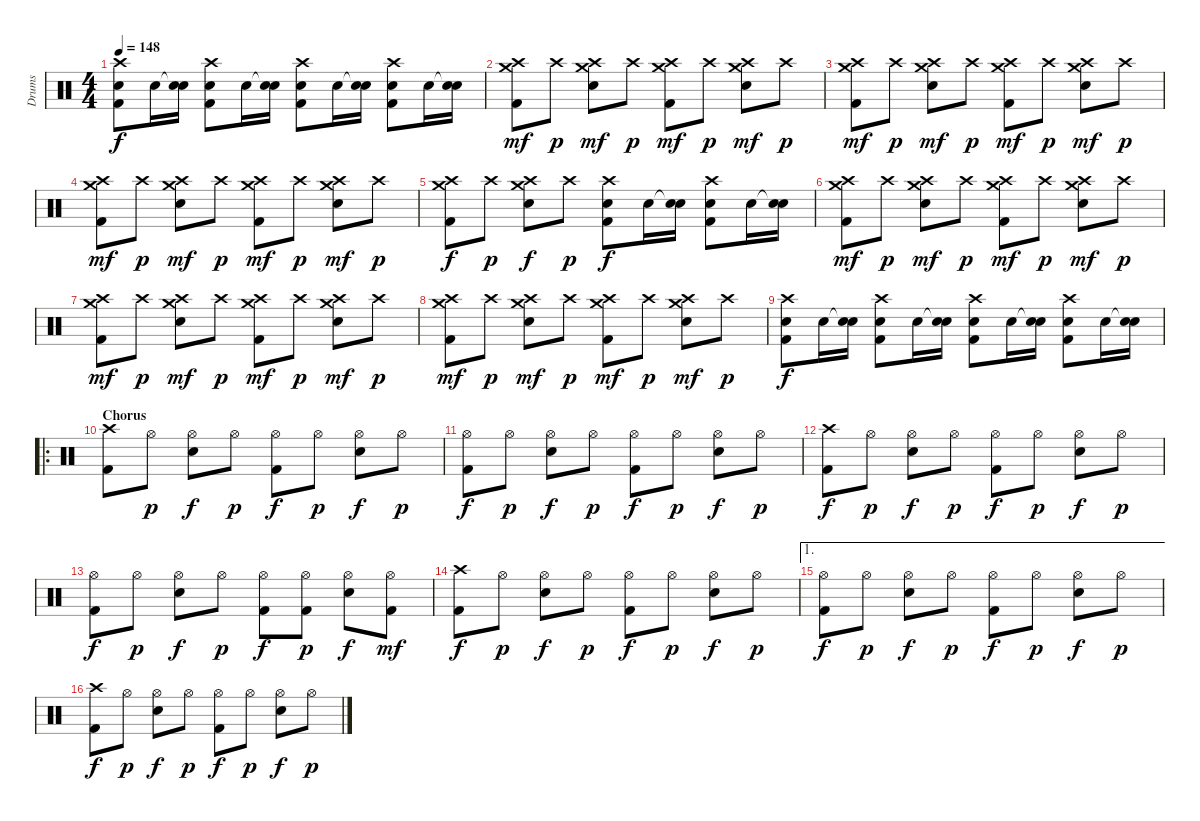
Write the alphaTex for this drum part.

\track ("Drums" "Drums") {instrument percussion}
\staff {score}
\articulation defaults
\ts (4 4)
\tempo 148
\clef neutral
\ks c
("Crash high (hit)" "Snare (hit) 2" "Kick (hit) 2").8{dy f} "Snare (hit) 2".16 ("Snare (hit)"{t} "Snare (hit) 2").16 ("Crash high (hit)" "Snare (hit) 2" "Kick (hit) 2").8 "Snare (hit) 2".16 ("Snare (hit)"{t} "Snare (hit) 2").16 ("Crash high (hit)" "Snare (hit) 2" "Kick (hit) 2").8 "Snare (hit) 2".16 ("Snare (hit)"{t} "Snare (hit) 2").16 ("Crash high (hit)" "Snare (hit) 2" "Kick (hit) 2").8 "Snare (hit) 2".16 ("Snare (hit)"{t} "Snare (hit) 2").16 |
("Crash high (hit)" "Crash medium (hit)" "Kick (hit) 2").8{dy mf} "Crash high (hit)".8{dy p} ("Crash high (hit)" "Crash medium (hit)" "Snare (hit) 2").8{dy mf} "Crash high (hit)".8{dy p} ("Crash high (hit)" "Crash medium (hit)" "Kick (hit) 2").8{dy mf} "Crash high (hit)".8{dy p} ("Crash high (hit)" "Crash medium (hit)" "Snare (hit) 2").8{dy mf} "Crash high (hit)".8{dy p} |
("Crash high (hit)" "Crash medium (hit)" "Kick (hit) 2").8{dy mf} "Crash high (hit)".8{dy p} ("Crash high (hit)" "Crash medium (hit)" "Snare (hit) 2").8{dy mf} "Crash high (hit)".8{dy p} ("Crash high (hit)" "Crash medium (hit)" "Kick (hit) 2").8{dy mf} "Crash high (hit)".8{dy p} ("Crash high (hit)" "Crash medium (hit)" "Snare (hit) 2").8{dy mf} "Crash high (hit)".8{dy p} |
("Crash high (hit)" "Crash medium (hit)" "Kick (hit) 2").8{dy mf} "Crash high (hit)".8{dy p} ("Crash high (hit)" "Crash medium (hit)" "Snare (hit) 2").8{dy mf} "Crash high (hit)".8{dy p} ("Crash high (hit)" "Crash medium (hit)" "Kick (hit) 2").8{dy mf} "Crash high (hit)".8{dy p} ("Crash high (hit)" "Crash medium (hit)" "Snare (hit) 2").8{dy mf} "Crash high (hit)".8{dy p} |
("Crash high (hit)" "Crash medium (hit)" "Kick (hit) 2").8{dy f} "Crash high (hit)".8{dy p} ("Crash high (hit)" "Crash medium (hit)" "Snare (hit) 2").8{dy f} "Crash high (hit)".8{dy p} ("Crash high (hit)" "Snare (hit) 2" "Kick (hit) 2").8{dy f} "Snare (hit) 2".16 ("Snare (hit)"{t} "Snare (hit) 2").16 ("Crash high (hit)" "Snare (hit) 2" "Kick (hit) 2").8 "Snare (hit) 2".16 ("Snare (hit)"{t} "Snare (hit) 2").16 |
("Crash high (hit)" "Crash medium (hit)" "Kick (hit) 2").8{dy mf} "Crash high (hit)".8{dy p} ("Crash high (hit)" "Crash medium (hit)" "Snare (hit) 2").8{dy mf} "Crash high (hit)".8{dy p} ("Crash high (hit)" "Crash medium (hit)" "Kick (hit) 2").8{dy mf} "Crash high (hit)".8{dy p} ("Crash high (hit)" "Crash medium (hit)" "Snare (hit) 2").8{dy mf} "Crash high (hit)".8{dy p} |
("Crash high (hit)" "Crash medium (hit)" "Kick (hit) 2").8{dy mf} "Crash high (hit)".8{dy p} ("Crash high (hit)" "Crash medium (hit)" "Snare (hit) 2").8{dy mf} "Crash high (hit)".8{dy p} ("Crash high (hit)" "Crash medium (hit)" "Kick (hit) 2").8{dy mf} "Crash high (hit)".8{dy p} ("Crash high (hit)" "Crash medium (hit)" "Snare (hit) 2").8{dy mf} "Crash high (hit)".8{dy p} |
("Crash high (hit)" "Crash medium (hit)" "Kick (hit) 2").8{dy mf} "Crash high (hit)".8{dy p} ("Crash high (hit)" "Crash medium (hit)" "Snare (hit) 2").8{dy mf} "Crash high (hit)".8{dy p} ("Crash high (hit)" "Crash medium (hit)" "Kick (hit) 2").8{dy mf} "Crash high (hit)".8{dy p} ("Crash high (hit)" "Crash medium (hit)" "Snare (hit) 2").8{dy mf} "Crash high (hit)".8{dy p} |
("Crash high (hit)" "Snare (hit) 2" "Kick (hit) 2").8{dy f} "Snare (hit) 2".16 ("Snare (hit)"{t} "Snare (hit) 2").16 ("Crash high (hit)" "Snare (hit) 2" "Kick (hit) 2").8 "Snare (hit) 2".16 ("Snare (hit)"{t} "Snare (hit) 2").16 ("Crash high (hit)" "Snare (hit) 2" "Kick (hit) 2").8 "Snare (hit) 2".16 ("Snare (hit)"{t} "Snare (hit) 2").16 ("Crash high (hit)" "Snare (hit) 2" "Kick (hit) 2").8 "Snare (hit) 2".16 ("Snare (hit)"{t} "Snare (hit) 2").16 |
\ro
\section ("" "Chorus")
("Crash high (hit)" "Kick (hit) 2").8 "Hi-Hat (open)".8{dy p} ("Hi-Hat (open)" "Snare (hit) 2").8{dy f} "Hi-Hat (open)".8{dy p} ("Hi-Hat (open)" "Kick (hit) 2").8{dy f} "Hi-Hat (open)".8{dy p} ("Hi-Hat (open)" "Snare (hit) 2").8{dy f} "Hi-Hat (open)".8{dy p} |
("Hi-Hat (open)" "Kick (hit) 2").8{dy f} "Hi-Hat (open)".8{dy p} ("Hi-Hat (open)" "Snare (hit) 2").8{dy f} "Hi-Hat (open)".8{dy p} ("Hi-Hat (open)" "Kick (hit) 2").8{dy f} "Hi-Hat (open)".8{dy p} ("Hi-Hat (open)" "Snare (hit) 2").8{dy f} "Hi-Hat (open)".8{dy p} |
("Crash high (hit)" "Kick (hit) 2").8{dy f} "Hi-Hat (open)".8{dy p} ("Hi-Hat (open)" "Snare (hit) 2").8{dy f} "Hi-Hat (open)".8{dy p} ("Hi-Hat (open)" "Kick (hit) 2").8{dy f} "Hi-Hat (open)".8{dy p} ("Hi-Hat (open)" "Snare (hit) 2").8{dy f} "Hi-Hat (open)".8{dy p} |
("Hi-Hat (open)" "Kick (hit) 2").8{dy f} "Hi-Hat (open)".8{dy p} ("Hi-Hat (open)" "Snare (hit) 2").8{dy f} "Hi-Hat (open)".8{dy p} ("Hi-Hat (open)" "Kick (hit) 2").8{dy f} ("Hi-Hat (open)" "Kick (hit) 2").8{dy p} ("Hi-Hat (open)" "Snare (hit) 2").8{dy f} ("Hi-Hat (open)" "Kick (hit) 2").8{dy mf} |
("Crash high (hit)" "Kick (hit) 2").8{dy f} "Hi-Hat (open)".8{dy p} ("Hi-Hat (open)" "Snare (hit) 2").8{dy f} "Hi-Hat (open)".8{dy p} ("Hi-Hat (open)" "Kick (hit) 2").8{dy f} "Hi-Hat (open)".8{dy p} ("Hi-Hat (open)" "Snare (hit) 2").8{dy f} "Hi-Hat (open)".8{dy p} |
\ae 1
("Hi-Hat (open)" "Kick (hit) 2").8{dy f} "Hi-Hat (open)".8{dy p} ("Hi-Hat (open)" "Snare (hit) 2").8{dy f} "Hi-Hat (open)".8{dy p} ("Hi-Hat (open)" "Kick (hit) 2").8{dy f} "Hi-Hat (open)".8{dy p} ("Hi-Hat (open)" "Snare (hit) 2").8{dy f} "Hi-Hat (open)".8{dy p} |
("Crash high (hit)" "Kick (hit) 2").8{dy f} "Hi-Hat (open)".8{dy p} ("Hi-Hat (open)" "Snare (hit) 2").8{dy f} "Hi-Hat (open)".8{dy p} ("Hi-Hat (open)" "Kick (hit) 2").8{dy f} "Hi-Hat (open)".8{dy p} ("Hi-Hat (open)" "Snare (hit) 2").8{dy f} "Hi-Hat (open)".8{dy p}
